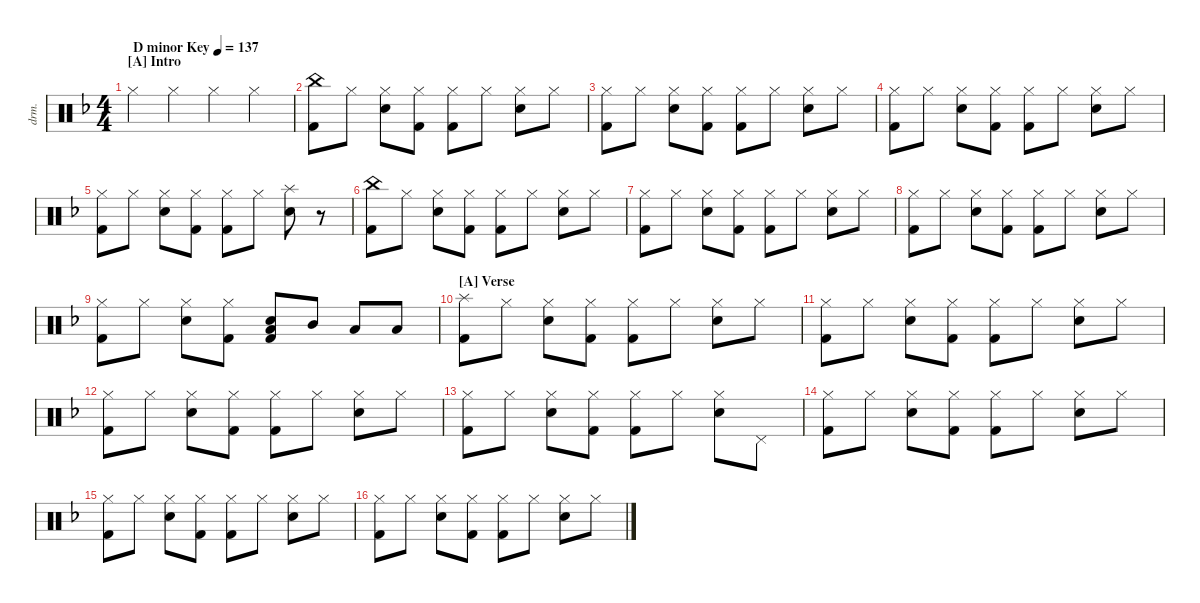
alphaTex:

\defaultSystemsLayout 4
\hideDynamics
\bracketExtendMode nobrackets
\track ("Drumkit" "drm.") {defaultSystemsLayout 4 instrument percussion}
\staff {score}
\articulation defaults
\ts (4 4)
\section ("A" "Intro")
\tempo (137 "D minor Key")
\clef neutral
\ks f "Hi-Hat (closed)"{acc forcenatural}.4{dy mf} "Hi-Hat (closed)"{acc forcenatural}.4 "Hi-Hat (closed)"{acc forcenatural}.4 "Hi-Hat (closed)"{acc forcenatural}.4
|
("Kick (hit) 2"{acc forcenatural} "China (hit)"{acc forcenatural}).8 "Hi-Hat (closed)"{acc forcenatural}.8 ("Hi-Hat (closed)"{acc forcenatural} "Snare (hit) 2"{acc forcenatural}).8 ("Hi-Hat (closed)"{acc forcenatural} "Kick (hit) 2"{acc forcenatural}).8 ("Hi-Hat (closed)"{acc forcenatural} "Kick (hit) 2"{acc forcenatural}).8 "Hi-Hat (closed)"{acc forcenatural}.8 ("Hi-Hat (closed)"{acc forcenatural} "Snare (hit) 2"{acc forcenatural}).8 "Hi-Hat (closed)"{acc forcenatural}.8 |
("Kick (hit) 2"{acc forcenatural} "Hi-Hat (closed)"{acc forcenatural}).8 "Hi-Hat (closed)"{acc forcenatural}.8 ("Hi-Hat (closed)"{acc forcenatural} "Snare (hit) 2"{acc forcenatural}).8 ("Hi-Hat (closed)"{acc forcenatural} "Kick (hit) 2"{acc forcenatural}).8 ("Hi-Hat (closed)"{acc forcenatural} "Kick (hit) 2"{acc forcenatural}).8 "Hi-Hat (closed)"{acc forcenatural}.8 ("Hi-Hat (closed)"{acc forcenatural} "Snare (hit) 2"{acc forcenatural}).8 "Hi-Hat (closed)"{acc forcenatural}.8 |
("Kick (hit) 2"{acc forcenatural} "Hi-Hat (closed)"{acc forcenatural}).8 "Hi-Hat (closed)"{acc forcenatural}.8 ("Hi-Hat (closed)"{acc forcenatural} "Snare (hit) 2"{acc forcenatural}).8 ("Hi-Hat (closed)"{acc forcenatural} "Kick (hit) 2"{acc forcenatural}).8 ("Hi-Hat (closed)"{acc forcenatural} "Kick (hit) 2"{acc forcenatural}).8 "Hi-Hat (closed)"{acc forcenatural}.8 ("Hi-Hat (closed)"{acc forcenatural} "Snare (hit) 2"{acc forcenatural}).8 "Hi-Hat (closed)"{acc forcenatural}.8 |
("Kick (hit) 2"{acc forcenatural} "Hi-Hat (closed)"{acc forcenatural}).8 "Hi-Hat (closed)"{acc forcenatural}.8 ("Hi-Hat (closed)"{acc forcenatural} "Snare (hit) 2"{acc forcenatural}).8 ("Hi-Hat (closed)"{acc forcenatural} "Kick (hit) 2"{acc forcenatural}).8 ("Hi-Hat (closed)"{acc forcenatural} "Kick (hit) 2"{acc forcenatural}).8 "Hi-Hat (closed)"{acc forcenatural}.8 ("Snare (hit) 2"{acc forcenatural} "Splash (hit)"{acc forcenatural}).8 r.8 |
("Kick (hit) 2"{acc forcenatural} "China (hit)"{acc forcenatural}).8 "Hi-Hat (closed)"{acc forcenatural}.8 ("Hi-Hat (closed)"{acc forcenatural} "Snare (hit) 2"{acc forcenatural}).8 ("Hi-Hat (closed)"{acc forcenatural} "Kick (hit) 2"{acc forcenatural}).8 ("Hi-Hat (closed)"{acc forcenatural} "Kick (hit) 2"{acc forcenatural}).8 "Hi-Hat (closed)"{acc forcenatural}.8 ("Hi-Hat (closed)"{acc forcenatural} "Snare (hit) 2"{acc forcenatural}).8 "Hi-Hat (closed)"{acc forcenatural}.8 |
("Kick (hit) 2"{acc forcenatural} "Hi-Hat (closed)"{acc forcenatural}).8 "Hi-Hat (closed)"{acc forcenatural}.8 ("Hi-Hat (closed)"{acc forcenatural} "Snare (hit) 2"{acc forcenatural}).8 ("Hi-Hat (closed)"{acc forcenatural} "Kick (hit) 2"{acc forcenatural}).8 ("Hi-Hat (closed)"{acc forcenatural} "Kick (hit) 2"{acc forcenatural}).8 "Hi-Hat (closed)"{acc forcenatural}.8 ("Hi-Hat (closed)"{acc forcenatural} "Snare (hit) 2"{acc forcenatural}).8 "Hi-Hat (closed)"{acc forcenatural}.8 |
("Kick (hit) 2"{acc forcenatural} "Hi-Hat (closed)"{acc forcenatural}).8 "Hi-Hat (closed)"{acc forcenatural}.8 ("Hi-Hat (closed)"{acc forcenatural} "Snare (hit) 2"{acc forcenatural}).8 ("Hi-Hat (closed)"{acc forcenatural} "Kick (hit) 2"{acc forcenatural}).8 ("Hi-Hat (closed)"{acc forcenatural} "Kick (hit) 2"{acc forcenatural}).8 "Hi-Hat (closed)"{acc forcenatural}.8 ("Hi-Hat (closed)"{acc forcenatural} "Snare (hit) 2"{acc forcenatural}).8 "Hi-Hat (closed)"{acc forcenatural}.8 |
("Kick (hit) 2"{acc forcenatural} "Hi-Hat (closed)"{acc forcenatural}).8 "Hi-Hat (closed)"{acc forcenatural}.8 ("Hi-Hat (closed)"{acc forcenatural} "Snare (hit) 2"{acc forcenatural}).8 ("Hi-Hat (closed)"{acc forcenatural} "Kick (hit) 2"{acc forcenatural}).8 ("Snare (hit) 2"{acc forcenatural} "Low Tom (hit)"{acc forcenatural} "Kick (hit) 2"{acc forcenatural}).8 "Mid Tom (hit)"{acc forcenatural}.8 "Low Tom (hit)"{acc forcenatural}.8 "Low Tom (hit)"{acc forcenatural}.8 |
\section ("A" "Verse")
("Kick (hit) 2"{acc forcenatural} "Splash (hit)"{acc forcenatural}).8 "Hi-Hat (closed)"{acc forcenatural}.8 ("Hi-Hat (closed)"{acc forcenatural} "Snare (hit) 2"{acc forcenatural}).8 ("Hi-Hat (closed)"{acc forcenatural} "Kick (hit) 2"{acc forcenatural}).8 ("Hi-Hat (closed)"{acc forcenatural} "Kick (hit) 2"{acc forcenatural}).8 "Hi-Hat (closed)"{acc forcenatural}.8 ("Hi-Hat (closed)"{acc forcenatural} "Snare (hit) 2"{acc forcenatural}).8 "Hi-Hat (closed)"{acc forcenatural}.8 |
("Kick (hit) 2"{acc forcenatural} "Hi-Hat (closed)"{acc forcenatural}).8 "Hi-Hat (closed)"{acc forcenatural}.8 ("Hi-Hat (closed)"{acc forcenatural} "Snare (hit) 2"{acc forcenatural}).8 ("Hi-Hat (closed)"{acc forcenatural} "Kick (hit) 2"{acc forcenatural}).8 ("Hi-Hat (closed)"{acc forcenatural} "Kick (hit) 2"{acc forcenatural}).8 "Hi-Hat (closed)"{acc forcenatural}.8 ("Hi-Hat (closed)"{acc forcenatural} "Snare (hit) 2"{acc forcenatural}).8 "Hi-Hat (closed)"{acc forcenatural}.8 |
("Kick (hit) 2"{acc forcenatural} "Hi-Hat (closed)"{acc forcenatural}).8 "Hi-Hat (closed)"{acc forcenatural}.8 ("Hi-Hat (closed)"{acc forcenatural} "Snare (hit) 2"{acc forcenatural}).8 ("Hi-Hat (closed)"{acc forcenatural} "Kick (hit) 2"{acc forcenatural}).8 ("Hi-Hat (closed)"{acc forcenatural} "Kick (hit) 2"{acc forcenatural}).8 "Hi-Hat (closed)"{acc forcenatural}.8 ("Hi-Hat (closed)"{acc forcenatural} "Snare (hit) 2"{acc forcenatural}).8 "Hi-Hat (closed)"{acc forcenatural}.8 |
("Kick (hit) 2"{acc forcenatural} "Hi-Hat (closed)"{acc forcenatural}).8 "Hi-Hat (closed)"{acc forcenatural}.8 ("Hi-Hat (closed)"{acc forcenatural} "Snare (hit) 2"{acc forcenatural}).8 ("Hi-Hat (closed)"{acc forcenatural} "Kick (hit) 2"{acc forcenatural}).8 ("Hi-Hat (closed)"{acc forcenatural} "Kick (hit) 2"{acc forcenatural}).8 "Hi-Hat (closed)"{acc forcenatural}.8 ("Hi-Hat (closed)"{acc forcenatural} "Snare (hit) 2"{acc forcenatural}).8 "Pedal Hi-Hat (hit)"{acc forcenatural}.8 |
("Kick (hit) 2"{acc forcenatural} "Hi-Hat (closed)"{acc forcenatural}).8 "Hi-Hat (closed)"{acc forcenatural}.8 ("Hi-Hat (closed)"{acc forcenatural} "Snare (hit) 2"{acc forcenatural}).8 ("Hi-Hat (closed)"{acc forcenatural} "Kick (hit) 2"{acc forcenatural}).8 ("Hi-Hat (closed)"{acc forcenatural} "Kick (hit) 2"{acc forcenatural}).8 "Hi-Hat (closed)"{acc forcenatural}.8 ("Hi-Hat (closed)"{acc forcenatural} "Snare (hit) 2"{acc forcenatural}).8 "Hi-Hat (closed)"{acc forcenatural}.8 |
("Kick (hit) 2"{acc forcenatural} "Hi-Hat (closed)"{acc forcenatural}).8 "Hi-Hat (closed)"{acc forcenatural}.8 ("Hi-Hat (closed)"{acc forcenatural} "Snare (hit) 2"{acc forcenatural}).8 ("Hi-Hat (closed)"{acc forcenatural} "Kick (hit) 2"{acc forcenatural}).8 ("Hi-Hat (closed)"{acc forcenatural} "Kick (hit) 2"{acc forcenatural}).8 "Hi-Hat (closed)"{acc forcenatural}.8 ("Hi-Hat (closed)"{acc forcenatural} "Snare (hit) 2"{acc forcenatural}).8 "Hi-Hat (closed)"{acc forcenatural}.8 |
("Kick (hit) 2"{acc forcenatural} "Hi-Hat (closed)"{acc forcenatural}).8 "Hi-Hat (closed)"{acc forcenatural}.8 ("Hi-Hat (closed)"{acc forcenatural} "Snare (hit) 2"{acc forcenatural}).8 ("Hi-Hat (closed)"{acc forcenatural} "Kick (hit) 2"{acc forcenatural}).8 ("Hi-Hat (closed)"{acc forcenatural} "Kick (hit) 2"{acc forcenatural}).8 "Hi-Hat (closed)"{acc forcenatural}.8 ("Hi-Hat (closed)"{acc forcenatural} "Snare (hit) 2"{acc forcenatural}).8 "Hi-Hat (closed)"{acc forcenatural}.8
